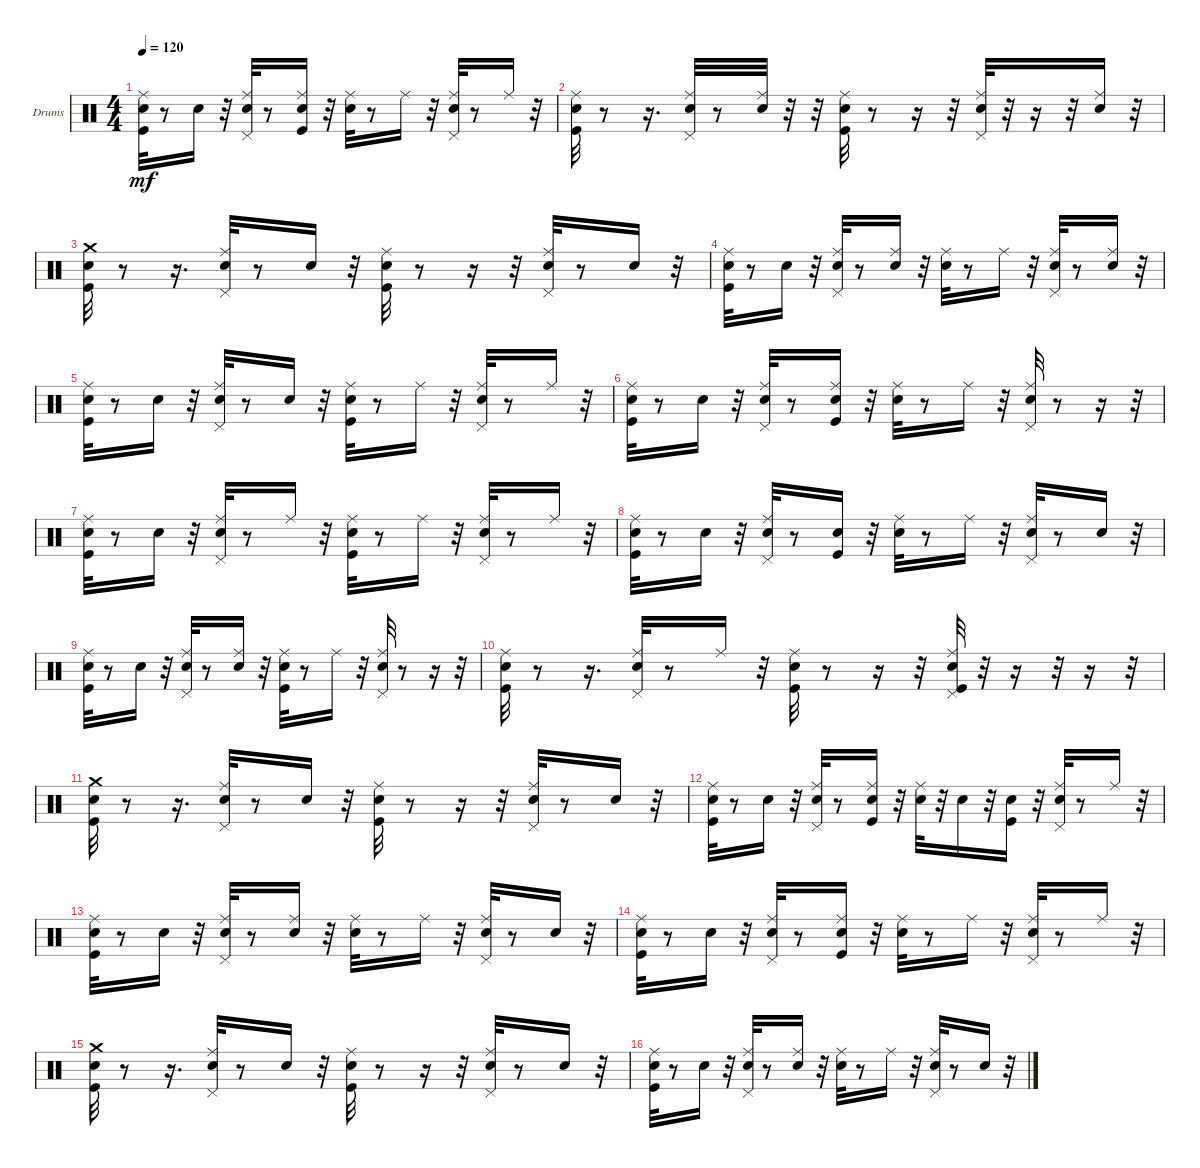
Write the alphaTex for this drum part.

\bracketExtendMode groupsimilarinstruments
\firstSystemTrackNameOrientation horizontal
\otherSystemsTrackNameOrientation horizontal
\track ("Drums   (BB)" "Drums") {instrument percussion}
\staff {score}
\articulation defaults
\ts (4 4)
\tempo 120
\clef neutral
\ks c
("Kick (hit)" "Snare (hit) 2" "Ride (middle)").32{dy mf} r.8 "Snare (hit) 2".16 r.32 ("Snare (hit) 2" "Ride (middle)" "Pedal Hi-Hat (hit)").32 r.8 ("Kick (hit)" "Snare (hit) 2" "Ride (middle)").16 r.32 ("Snare (hit) 2" "Ride (middle)").32 r.8 "Ride (middle)".16 r.32 ("Snare (hit) 2" "Ride (middle)" "Pedal Hi-Hat (hit)").32 r.8 "Ride (middle)".16 r.32 |
("Kick (hit)" "Snare (hit) 2" "Ride (middle)").32 r.8 r.16{d} ("Snare (hit) 2" "Ride (middle)" "Pedal Hi-Hat (hit)").32 r.8 ("Snare (hit) 2" "Ride (middle)").32 r.32 r.32 ("Kick (hit)" "Snare (hit) 2" "Ride (middle)").32 r.8 r.16 r.32 ("Snare (hit) 2" "Ride (middle)" "Pedal Hi-Hat (hit)").32 r.32 r.16 r.32 ("Snare (hit) 2" "Ride (middle)").16 r.32 |
("Kick (hit)" "Snare (hit) 2" "Crash medium (hit)").32 r.8 r.16{d} ("Snare (hit) 2" "Ride (middle)" "Pedal Hi-Hat (hit)").32 r.8 "Snare (hit) 2".16 r.32 ("Kick (hit)" "Snare (hit) 2" "Ride (middle)").32 r.8 r.16 r.32 ("Snare (hit) 2" "Ride (middle)" "Pedal Hi-Hat (hit)").32 r.8 "Snare (hit) 2".16 r.32 |
("Kick (hit)" "Snare (hit) 2" "Ride (middle)").32 r.8 "Snare (hit) 2".16 r.32 ("Snare (hit) 2" "Ride (middle)" "Pedal Hi-Hat (hit)").32 r.8 ("Snare (hit) 2" "Ride (middle)").16 r.32 ("Snare (hit) 2" "Ride (middle)").32 r.8 "Ride (middle)".16 r.32 ("Snare (hit) 2" "Ride (middle)" "Pedal Hi-Hat (hit)").32 r.8 ("Snare (hit) 2" "Ride (middle)").16 r.32 |
("Kick (hit)" "Snare (hit) 2" "Ride (middle)").32 r.8 "Snare (hit) 2".16 r.32 ("Snare (hit) 2" "Ride (middle)" "Pedal Hi-Hat (hit)").32 r.8 "Snare (hit) 2".16 r.32 ("Kick (hit)" "Snare (hit) 2" "Ride (middle)").32 r.8 "Ride (middle)".16 r.32 ("Snare (hit) 2" "Ride (middle)" "Pedal Hi-Hat (hit)").32 r.8 "Ride (middle)".16 r.32 |
("Kick (hit)" "Snare (hit) 2" "Ride (middle)").32 r.8 "Snare (hit) 2".16 r.32 ("Snare (hit) 2" "Ride (middle)" "Pedal Hi-Hat (hit)").32 r.8 ("Kick (hit)" "Snare (hit) 2" "Ride (middle)").16 r.32 ("Snare (hit) 2" "Ride (middle)").32 r.8 "Ride (middle)".16 r.32 ("Snare (hit) 2" "Ride (middle)" "Pedal Hi-Hat (hit)").32 r.8 r.16 r.32 |
("Kick (hit)" "Snare (hit) 2" "Ride (middle)").32 r.8 "Snare (hit) 2".16 r.32 ("Snare (hit) 2" "Ride (middle)" "Pedal Hi-Hat (hit)").32 r.8 "Ride (middle)".16 r.32 ("Kick (hit)" "Snare (hit) 2" "Ride (middle)").32 r.8 "Ride (middle)".16 r.32 ("Snare (hit) 2" "Ride (middle)" "Pedal Hi-Hat (hit)").32 r.8 "Ride (middle)".16 r.32 |
("Kick (hit)" "Snare (hit) 2" "Ride (middle)").32 r.8 "Snare (hit) 2".16 r.32 ("Snare (hit) 2" "Ride (middle)" "Pedal Hi-Hat (hit)").32 r.8 ("Kick (hit)" "Snare (hit) 2").16 r.32 ("Snare (hit) 2" "Ride (middle)").32 r.8 "Ride (middle)".16 r.32 ("Snare (hit) 2" "Ride (middle)" "Pedal Hi-Hat (hit)").32 r.8 "Snare (hit) 2".16 r.32 |
("Kick (hit)" "Snare (hit) 2" "Ride (middle)").32 r.8 "Snare (hit) 2".16 r.32 ("Snare (hit) 2" "Ride (middle)" "Pedal Hi-Hat (hit)").32 r.8 ("Snare (hit) 2" "Ride (middle)").16 r.32 ("Kick (hit)" "Snare (hit) 2" "Ride (middle)").32 r.8 "Ride (middle)".16 r.32 ("Snare (hit) 2" "Ride (middle)" "Pedal Hi-Hat (hit)").32 r.8 r.16 r.32 |
("Kick (hit)" "Snare (hit) 2" "Ride (middle)").32 r.8 r.16{d} ("Snare (hit) 2" "Ride (middle)" "Pedal Hi-Hat (hit)").32 r.8 "Ride (middle)".16 r.32 ("Kick (hit)" "Snare (hit) 2" "Ride (middle)").32 r.8 r.16 r.32 ("Kick (hit)" "Snare (hit) 2" "Ride (middle)" "Pedal Hi-Hat (hit)").32 r.32 r.16 r.32 r.16 r.32 |
("Kick (hit)" "Snare (hit) 2" "Crash medium (hit)").32 r.8 r.16{d} ("Snare (hit) 2" "Ride (middle)" "Pedal Hi-Hat (hit)").32 r.8 "Snare (hit) 2".16 r.32 ("Kick (hit)" "Snare (hit) 2" "Ride (middle)").32 r.8 r.16 r.32 ("Snare (hit) 2" "Ride (middle)" "Pedal Hi-Hat (hit)").32 r.8 "Snare (hit) 2".16 r.32 |
("Kick (hit)" "Snare (hit) 2" "Ride (middle)").32 r.8 "Snare (hit) 2".16 r.32 ("Snare (hit) 2" "Ride (middle)" "Pedal Hi-Hat (hit)").32 r.8 ("Kick (hit)" "Snare (hit) 2" "Ride (middle)").16 r.32 ("Snare (hit) 2" "Ride (middle)").32 r.32 "Snare (hit) 2".16 r.32 ("Kick (hit)" "Snare (hit) 2").16 r.32 ("Snare (hit) 2" "Ride (middle)" "Pedal Hi-Hat (hit)").32 r.8 "Ride (middle)".16 r.32 |
("Kick (hit)" "Snare (hit) 2" "Ride (middle)").32 r.8 "Snare (hit) 2".16 r.32 ("Snare (hit) 2" "Ride (middle)" "Pedal Hi-Hat (hit)").32 r.8 ("Snare (hit) 2" "Ride (middle)").16 r.32 ("Snare (hit) 2" "Ride (middle)").32 r.8 "Ride (middle)".16 r.32 ("Snare (hit) 2" "Ride (middle)" "Pedal Hi-Hat (hit)").32 r.8 "Snare (hit) 2".16 r.32 |
("Kick (hit)" "Snare (hit) 2" "Ride (middle)").32 r.8 "Snare (hit) 2".16 r.32 ("Snare (hit) 2" "Ride (middle)" "Pedal Hi-Hat (hit)").32 r.8 ("Kick (hit)" "Snare (hit) 2" "Ride (middle)").16 r.32 ("Snare (hit) 2" "Ride (middle)").32 r.8 "Ride (middle)".16 r.32 ("Snare (hit) 2" "Ride (middle)" "Pedal Hi-Hat (hit)").32 r.8 "Ride (middle)".16 r.32 |
("Kick (hit)" "Snare (hit) 2" "Crash medium (hit)").32 r.8 r.16{d} ("Snare (hit) 2" "Ride (middle)" "Pedal Hi-Hat (hit)").32 r.8 "Snare (hit) 2".16 r.32 ("Kick (hit)" "Snare (hit) 2" "Ride (middle)").32 r.8 r.16 r.32 ("Snare (hit) 2" "Ride (middle)" "Pedal Hi-Hat (hit)").32 r.8 "Snare (hit) 2".16 r.32 |
("Kick (hit)" "Snare (hit) 2" "Ride (middle)").32 r.8 "Snare (hit) 2".16 r.32 ("Snare (hit) 2" "Ride (middle)" "Pedal Hi-Hat (hit)").32 r.8 ("Snare (hit) 2" "Ride (middle)").16 r.32 ("Snare (hit) 2" "Ride (middle)").32 r.8 "Ride (middle)".16 r.32 ("Snare (hit) 2" "Ride (middle)" "Pedal Hi-Hat (hit)").32 r.8 "Snare (hit) 2".16 r.32
